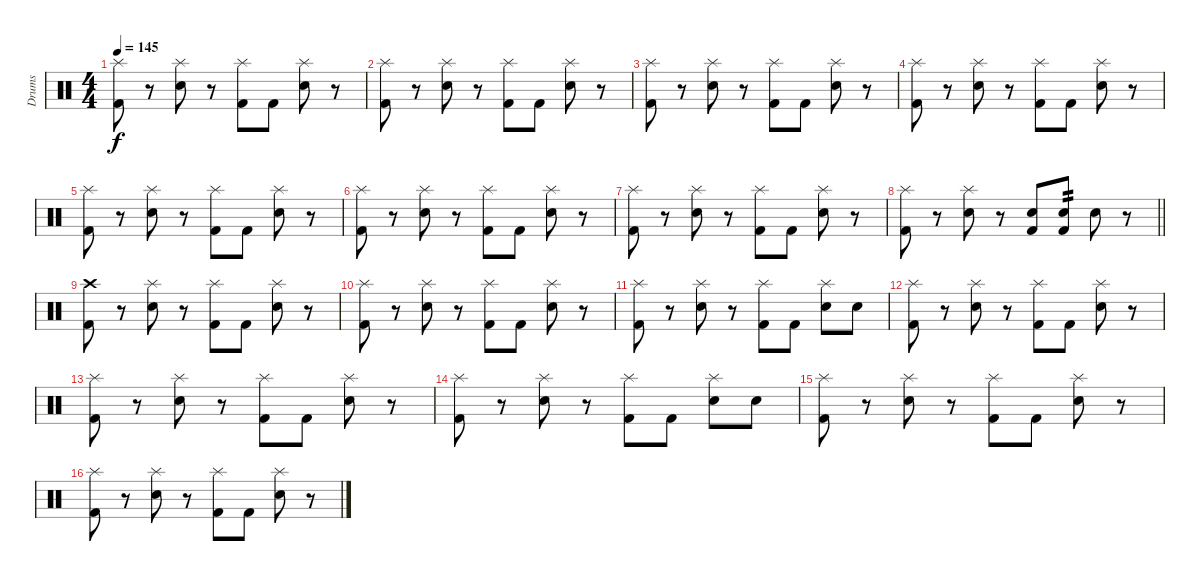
\track ("Drums" "Drums") {instrument percussion}
\staff {score}
\articulation defaults
\ts (4 4)
\tempo 145
\clef neutral
\ks c
("Splash (hit)" "Kick (hit) 2").8{dy f} r.8 ("Splash (hit)" "Electric Snare (hit)").8 r.8 ("Splash (hit)" "Kick (hit) 2").8 "Kick (hit) 2".8 ("Splash (hit)" "Electric Snare (hit)").8 r.8 |
("Splash (hit)" "Kick (hit) 2").8 r.8 ("Splash (hit)" "Electric Snare (hit)").8 r.8 ("Splash (hit)" "Kick (hit) 2").8 "Kick (hit) 2".8 ("Splash (hit)" "Electric Snare (hit)").8 r.8 |
("Splash (hit)" "Kick (hit) 2").8 r.8 ("Splash (hit)" "Electric Snare (hit)").8 r.8 ("Splash (hit)" "Kick (hit) 2").8 "Kick (hit) 2".8 ("Splash (hit)" "Electric Snare (hit)").8 r.8 |
("Splash (hit)" "Kick (hit) 2").8 r.8 ("Splash (hit)" "Electric Snare (hit)").8 r.8 ("Splash (hit)" "Kick (hit) 2").8 "Kick (hit) 2".8 ("Splash (hit)" "Electric Snare (hit)").8 r.8 |
("Splash (hit)" "Kick (hit) 2").8 r.8 ("Splash (hit)" "Electric Snare (hit)").8 r.8 ("Splash (hit)" "Kick (hit) 2").8 "Kick (hit) 2".8 ("Splash (hit)" "Electric Snare (hit)").8 r.8 |
("Splash (hit)" "Kick (hit) 2").8 r.8 ("Splash (hit)" "Electric Snare (hit)").8 r.8 ("Splash (hit)" "Kick (hit) 2").8 "Kick (hit) 2".8 ("Splash (hit)" "Electric Snare (hit)").8 r.8 |
("Splash (hit)" "Kick (hit) 2").8 r.8 ("Splash (hit)" "Electric Snare (hit)").8 r.8 ("Splash (hit)" "Kick (hit) 2").8 "Kick (hit) 2".8 ("Splash (hit)" "Electric Snare (hit)").8 r.8 |
\barLineRight lightlight
("Splash (hit)" "Kick (hit) 2").8 r.8 ("Splash (hit)" "Electric Snare (hit)").8 r.8 ("Electric Snare (hit)" "Kick (hit) 2").8 ("Electric Snare (hit)" "Kick (hit) 2").8{tp 2} "Electric Snare (hit)".8 r.8 |
("Crash high (hit)" "Kick (hit) 2").8 r.8 ("Splash (hit)" "Electric Snare (hit)").8 r.8 ("Splash (hit)" "Kick (hit) 2").8 "Kick (hit) 2".8 ("Splash (hit)" "Electric Snare (hit)").8 r.8 |
("Splash (hit)" "Kick (hit) 2").8 r.8 ("Splash (hit)" "Electric Snare (hit)").8 r.8 ("Splash (hit)" "Kick (hit) 2").8 "Kick (hit) 2".8 ("Splash (hit)" "Electric Snare (hit)").8 r.8 |
("Splash (hit)" "Kick (hit) 2").8 r.8 ("Splash (hit)" "Electric Snare (hit)").8 r.8 ("Splash (hit)" "Kick (hit) 2").8 "Kick (hit) 2".8 ("Splash (hit)" "Electric Snare (hit)").8 "Electric Snare (hit)".8 |
("Splash (hit)" "Kick (hit) 2").8 r.8 ("Splash (hit)" "Electric Snare (hit)").8 r.8 ("Splash (hit)" "Kick (hit) 2").8 "Kick (hit) 2".8 ("Splash (hit)" "Electric Snare (hit)").8 r.8 |
("Splash (hit)" "Kick (hit) 2").8 r.8 ("Splash (hit)" "Electric Snare (hit)").8 r.8 ("Splash (hit)" "Kick (hit) 2").8 "Kick (hit) 2".8 ("Splash (hit)" "Electric Snare (hit)").8 r.8 |
("Splash (hit)" "Kick (hit) 2").8 r.8 ("Splash (hit)" "Electric Snare (hit)").8 r.8 ("Splash (hit)" "Kick (hit) 2").8 "Kick (hit) 2".8 ("Splash (hit)" "Electric Snare (hit)").8 "Electric Snare (hit)".8 |
("Splash (hit)" "Kick (hit) 2").8 r.8 ("Splash (hit)" "Electric Snare (hit)").8 r.8 ("Splash (hit)" "Kick (hit) 2").8 "Kick (hit) 2".8 ("Splash (hit)" "Electric Snare (hit)").8 r.8 |
("Splash (hit)" "Kick (hit) 2").8 r.8 ("Splash (hit)" "Electric Snare (hit)").8 r.8 ("Splash (hit)" "Kick (hit) 2").8 "Kick (hit) 2".8 ("Splash (hit)" "Electric Snare (hit)").8 r.8
